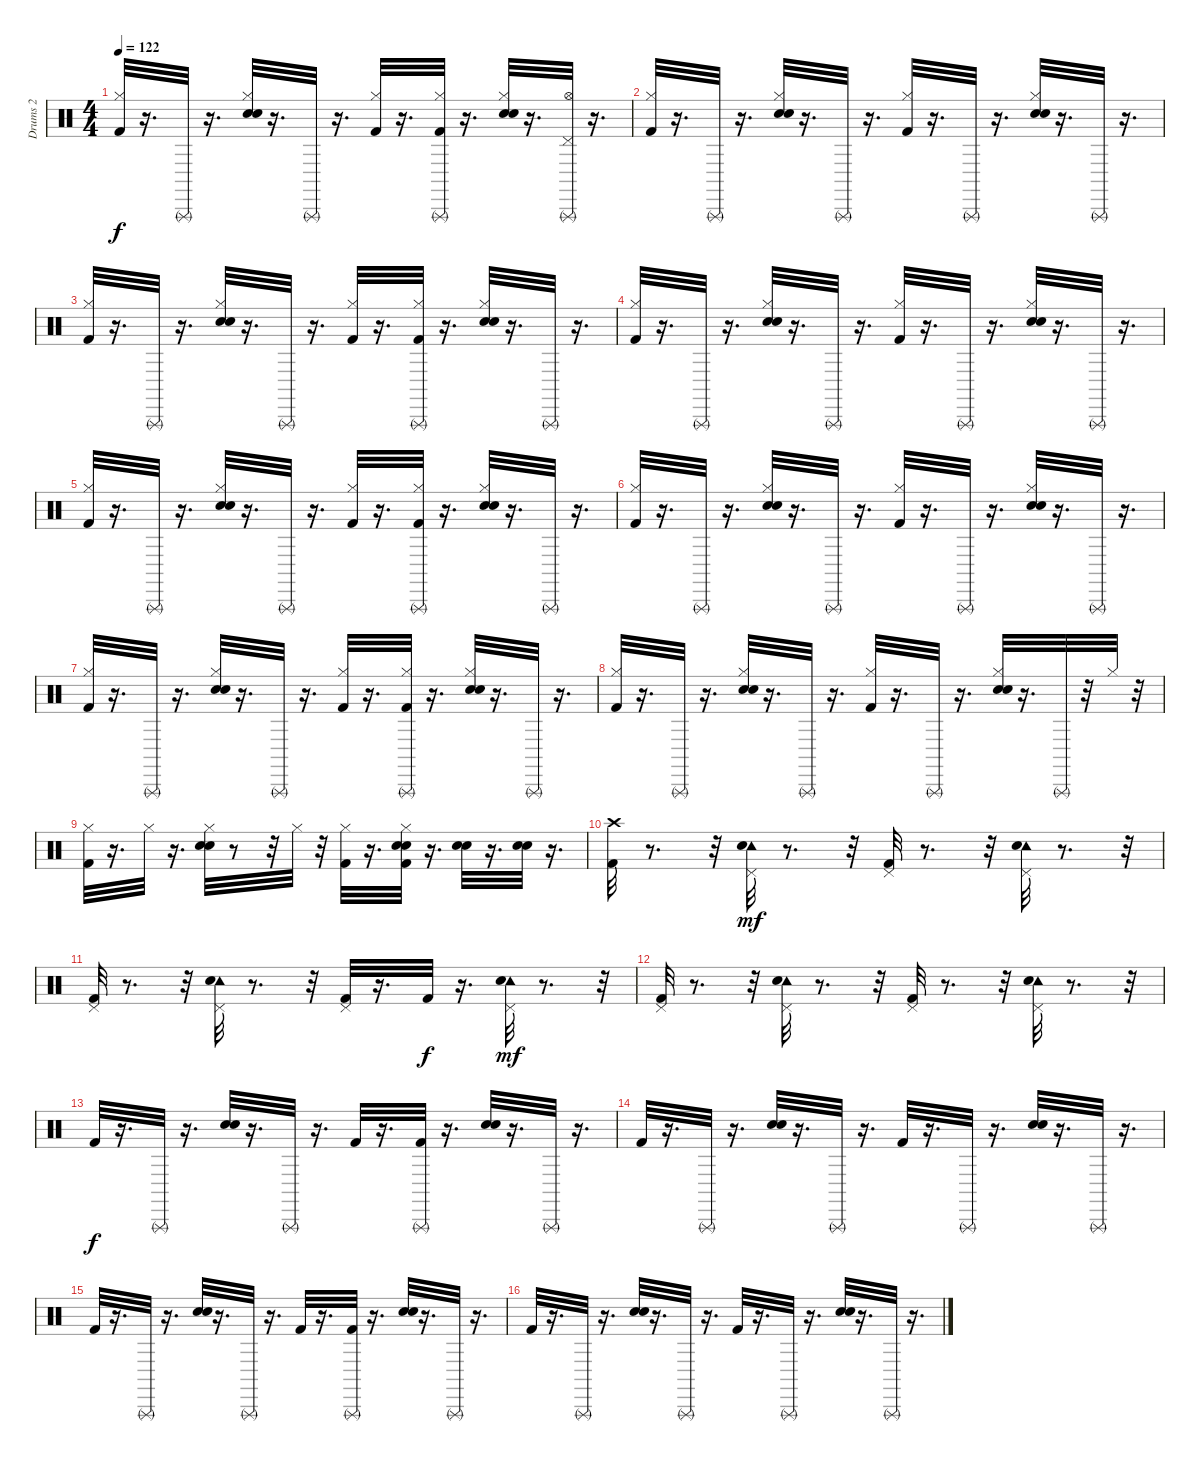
\track ("Drums 2" "Drums 2") {instrument percussion}
\staff {score}
\articulation defaults
\ts (4 4)
\tempo 122
\clef neutral
\ks c
("Hi-Hat (closed)" "Kick (hit) 2").32{dy f} r.16{d} "Triangle (rnute)".32 r.16{d} ("Hi-Hat (closed)" "Snare (hit) 2" "Electric Snare (hit)").32 r.16{d} "Triangle (rnute)".32 r.16{d} ("Hi-Hat (closed)" "Kick (hit) 2").32 r.16{d} ("Triangle (rnute)" "Hi-Hat (closed)" "Kick (hit) 2").32 r.16{d} ("Hi-Hat (closed)" "Snare (hit) 2" "Electric Snare (hit)").32 r.16{d} ("Triangle (rnute)" "Hi-Hat (open)" "Pedal Hi-Hat (hit)").32 r.16{d} |
("Hi-Hat (closed)" "Kick (hit) 2").32 r.16{d} "Triangle (rnute)".32 r.16{d} ("Hi-Hat (closed)" "Snare (hit) 2" "Electric Snare (hit)").32 r.16{d} "Triangle (rnute)".32 r.16{d} ("Hi-Hat (closed)" "Kick (hit) 2").32 r.16{d} "Triangle (rnute)".32 r.16{d} ("Hi-Hat (closed)" "Snare (hit) 2" "Electric Snare (hit)").32 r.16{d} "Triangle (rnute)".32 r.16{d} |
("Hi-Hat (closed)" "Kick (hit) 2").32 r.16{d} "Triangle (rnute)".32 r.16{d} ("Hi-Hat (closed)" "Snare (hit) 2" "Electric Snare (hit)").32 r.16{d} "Triangle (rnute)".32 r.16{d} ("Hi-Hat (closed)" "Kick (hit) 2").32 r.16{d} ("Triangle (rnute)" "Hi-Hat (closed)" "Kick (hit) 2").32 r.16{d} ("Hi-Hat (closed)" "Snare (hit) 2" "Electric Snare (hit)").32 r.16{d} "Triangle (rnute)".32 r.16{d} |
("Hi-Hat (closed)" "Kick (hit) 2").32 r.16{d} "Triangle (rnute)".32 r.16{d} ("Hi-Hat (closed)" "Snare (hit) 2" "Electric Snare (hit)").32 r.16{d} "Triangle (rnute)".32 r.16{d} ("Hi-Hat (closed)" "Kick (hit) 2").32 r.16{d} "Triangle (rnute)".32 r.16{d} ("Hi-Hat (closed)" "Snare (hit) 2" "Electric Snare (hit)").32 r.16{d} "Triangle (rnute)".32 r.16{d} |
("Hi-Hat (closed)" "Kick (hit) 2").32 r.16{d} "Triangle (rnute)".32 r.16{d} ("Hi-Hat (closed)" "Snare (hit) 2" "Electric Snare (hit)").32 r.16{d} "Triangle (rnute)".32 r.16{d} ("Hi-Hat (closed)" "Kick (hit) 2").32 r.16{d} ("Triangle (rnute)" "Hi-Hat (closed)" "Kick (hit) 2").32 r.16{d} ("Hi-Hat (closed)" "Snare (hit) 2" "Electric Snare (hit)").32 r.16{d} "Triangle (rnute)".32 r.16{d} |
("Hi-Hat (closed)" "Kick (hit) 2").32 r.16{d} "Triangle (rnute)".32 r.16{d} ("Hi-Hat (closed)" "Snare (hit) 2" "Electric Snare (hit)").32 r.16{d} "Triangle (rnute)".32 r.16{d} ("Hi-Hat (closed)" "Kick (hit) 2").32 r.16{d} "Triangle (rnute)".32 r.16{d} ("Hi-Hat (closed)" "Snare (hit) 2" "Electric Snare (hit)").32 r.16{d} "Triangle (rnute)".32 r.16{d} |
("Hi-Hat (closed)" "Kick (hit) 2").32 r.16{d} "Triangle (rnute)".32 r.16{d} ("Hi-Hat (closed)" "Snare (hit) 2" "Electric Snare (hit)").32 r.16{d} "Triangle (rnute)".32 r.16{d} ("Hi-Hat (closed)" "Kick (hit) 2").32 r.16{d} ("Triangle (rnute)" "Hi-Hat (closed)" "Kick (hit) 2").32 r.16{d} ("Hi-Hat (closed)" "Snare (hit) 2" "Electric Snare (hit)").32 r.16{d} "Triangle (rnute)".32 r.16{d} |
("Hi-Hat (closed)" "Kick (hit) 2").32 r.16{d} "Triangle (rnute)".32 r.16{d} ("Hi-Hat (closed)" "Snare (hit) 2" "Electric Snare (hit)").32 r.16{d} "Triangle (rnute)".32 r.16{d} ("Hi-Hat (closed)" "Kick (hit) 2").32 r.16{d} "Triangle (rnute)".32 r.16{d} ("Hi-Hat (closed)" "Snare (hit) 2" "Electric Snare (hit)").32 r.16{d} "Triangle (rnute)".32 r.32 "Hi-Hat (closed)".32 r.32 |
("Hi-Hat (closed)" "Kick (hit) 2").32 r.16{d} "Hi-Hat (closed)".32 r.16{d} ("Hi-Hat (closed)" "Snare (hit) 2" "Electric Snare (hit)").32 r.8 r.32 "Hi-Hat (closed)".32 r.32 ("Hi-Hat (closed)" "Kick (hit) 2").32 r.16{d} ("Electric Snare (hit)" "Snare (hit) 2" "Hi-Hat (closed)" "Kick (hit) 2").32 r.16{d} ("Snare (hit) 2" "Electric Snare (hit)").32 r.16{d} ("Electric Snare (hit)" "Snare (hit) 2").32 r.16{d} |
("Crash high (hit)" "Kick (hit) 2").32 r.8{d} r.32 ("Pedal Hi-Hat (hit)" "Tambourine (hit)" "Snare (hit) 2").32{dy mf} r.8{d} r.32 ("Pedal Hi-Hat (hit)" "Kick (hit) 2").32 r.8{d} r.32 ("Pedal Hi-Hat (hit)" "Tambourine (hit)" "Snare (hit) 2").32 r.8{d} r.32 |
("Pedal Hi-Hat (hit)" "Kick (hit) 2").32 r.8{d} r.32 ("Pedal Hi-Hat (hit)" "Tambourine (hit)" "Snare (hit) 2").32 r.8{d} r.32 ("Pedal Hi-Hat (hit)" "Kick (hit) 2").32 r.16{d} "Kick (hit) 2".32{dy f} r.16{d} ("Pedal Hi-Hat (hit)" "Tambourine (hit)" "Snare (hit) 2").32{dy mf} r.8{d} r.32 |
("Pedal Hi-Hat (hit)" "Kick (hit) 2").32 r.8{d} r.32 ("Pedal Hi-Hat (hit)" "Tambourine (hit)" "Snare (hit) 2").32 r.8{d} r.32 ("Pedal Hi-Hat (hit)" "Kick (hit) 2").32 r.8{d} r.32 ("Pedal Hi-Hat (hit)" "Tambourine (hit)" "Snare (hit) 2").32 r.8{d} r.32 |
"Kick (hit) 2".32{dy f} r.16{d} "Triangle (rnute)".32 r.16{d} ("Snare (hit) 2" "Electric Snare (hit)").32 r.16{d} "Triangle (rnute)".32 r.16{d} "Kick (hit) 2".32 r.16{d} ("Triangle (rnute)" "Kick (hit) 2").32 r.16{d} ("Snare (hit) 2" "Electric Snare (hit)").32 r.16{d} "Triangle (rnute)".32 r.16{d} |
"Kick (hit) 2".32 r.16{d} "Triangle (rnute)".32 r.16{d} ("Snare (hit) 2" "Electric Snare (hit)").32 r.16{d} "Triangle (rnute)".32 r.16{d} "Kick (hit) 2".32 r.16{d} "Triangle (rnute)".32 r.16{d} ("Snare (hit) 2" "Electric Snare (hit)").32 r.16{d} "Triangle (rnute)".32 r.16{d} |
"Kick (hit) 2".32 r.16{d} "Triangle (rnute)".32 r.16{d} ("Snare (hit) 2" "Electric Snare (hit)").32 r.16{d} "Triangle (rnute)".32 r.16{d} "Kick (hit) 2".32 r.16{d} ("Triangle (rnute)" "Kick (hit) 2").32 r.16{d} ("Snare (hit) 2" "Electric Snare (hit)").32 r.16{d} "Triangle (rnute)".32 r.16{d} |
"Kick (hit) 2".32 r.16{d} "Triangle (rnute)".32 r.16{d} ("Snare (hit) 2" "Electric Snare (hit)").32 r.16{d} "Triangle (rnute)".32 r.16{d} "Kick (hit) 2".32 r.16{d} "Triangle (rnute)".32 r.16{d} ("Snare (hit) 2" "Electric Snare (hit)").32 r.16{d} "Triangle (rnute)".32 r.16{d}
